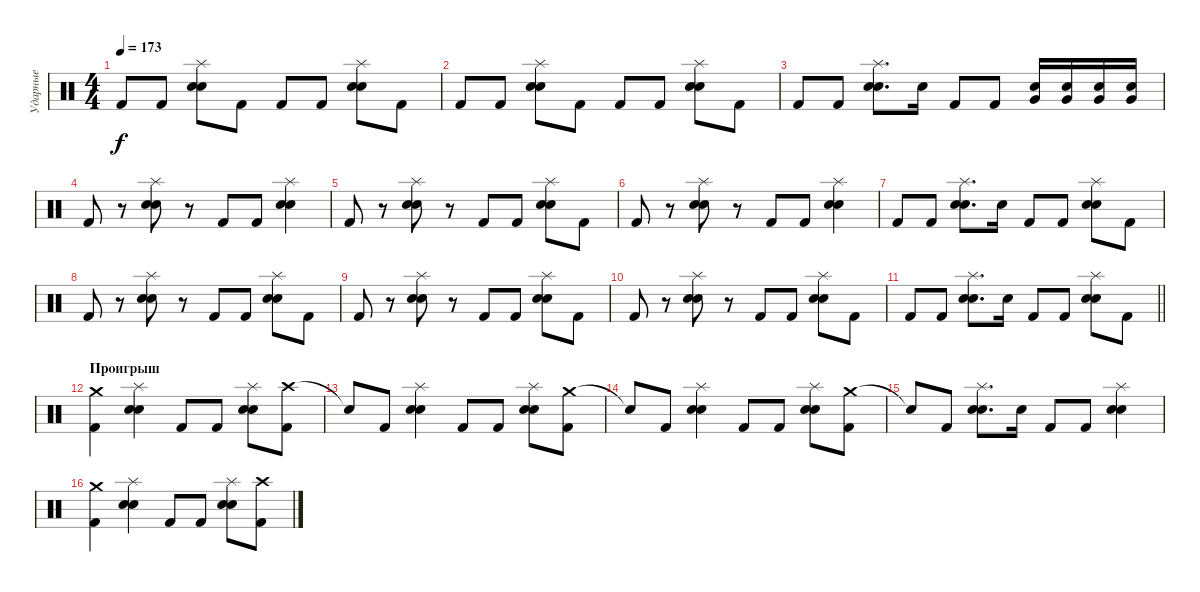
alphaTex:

\track ("Ударные" "Ударные") {instrument percussion}
\staff {score}
\articulation defaults
\ts (4 4)
\tempo 173
\clef neutral
\ks c "Kick (hit) 2".8{dy f} "Kick (hit) 2".8
("Splash (hit)" "Electric Snare (hit)" "Snare (hit) 2").8 "Kick (hit) 2".8 "Kick (hit) 2".8 "Kick (hit) 2".8 ("Splash (hit)" "Electric Snare (hit)" "Snare (hit) 2").8 "Kick (hit) 2".8 |
"Kick (hit) 2".8 "Kick (hit) 2".8 ("Splash (hit)" "Electric Snare (hit)" "Snare (hit) 2").8 "Kick (hit) 2".8 "Kick (hit) 2".8 "Kick (hit) 2".8 ("Splash (hit)" "Electric Snare (hit)" "Snare (hit) 2").8 "Kick (hit) 2".8 |
"Kick (hit) 2".8 "Kick (hit) 2".8 ("Splash (hit)" "Electric Snare (hit)" "Snare (hit) 2").8{d} "Electric Snare (hit)".16 "Kick (hit) 2".8 "Kick (hit) 2".8 ("Very Low Tom (hit)" "Snare (hit) 2").16 ("Very Low Tom (hit)" "Snare (hit) 2").16 ("Very Low Tom (hit)" "Snare (hit) 2").16 ("Very Low Tom (hit)" "Snare (hit) 2").16 |
"Kick (hit) 2".8 r.8 ("Splash (hit)" "Electric Snare (hit)" "Snare (hit) 2").8 r.8 "Kick (hit) 2".8 "Kick (hit) 2".8 ("Splash (hit)" "Electric Snare (hit)" "Snare (hit) 2").4 |
"Kick (hit) 2".8 r.8 ("Splash (hit)" "Electric Snare (hit)" "Snare (hit) 2").8 r.8 "Kick (hit) 2".8 "Kick (hit) 2".8 ("Splash (hit)" "Electric Snare (hit)" "Snare (hit) 2").8 "Kick (hit) 2".8 |
"Kick (hit) 2".8 r.8 ("Splash (hit)" "Electric Snare (hit)" "Snare (hit) 2").8 r.8 "Kick (hit) 2".8 "Kick (hit) 2".8 ("Splash (hit)" "Electric Snare (hit)" "Snare (hit) 2").4 |
"Kick (hit) 2".8 "Kick (hit) 2".8 ("Splash (hit)" "Electric Snare (hit)" "Snare (hit) 2").8{d} "Electric Snare (hit)".16 "Kick (hit) 2".8 "Kick (hit) 2".8 ("Splash (hit)" "Electric Snare (hit)" "Snare (hit) 2").8 "Kick (hit) 2".8 |
"Kick (hit) 2".8 r.8 ("Splash (hit)" "Electric Snare (hit)" "Snare (hit) 2").8 r.8 "Kick (hit) 2".8 "Kick (hit) 2".8 ("Splash (hit)" "Electric Snare (hit)" "Snare (hit) 2").8 "Kick (hit) 2".8 |
"Kick (hit) 2".8 r.8 ("Splash (hit)" "Electric Snare (hit)" "Snare (hit) 2").8 r.8 "Kick (hit) 2".8 "Kick (hit) 2".8 ("Splash (hit)" "Electric Snare (hit)" "Snare (hit) 2").8 "Kick (hit) 2".8 |
"Kick (hit) 2".8 r.8 ("Splash (hit)" "Electric Snare (hit)" "Snare (hit) 2").8 r.8 "Kick (hit) 2".8 "Kick (hit) 2".8 ("Splash (hit)" "Electric Snare (hit)" "Snare (hit) 2").8 "Kick (hit) 2".8 |
\barLineRight lightlight "Kick (hit) 2".8 "Kick (hit) 2".8
("Splash (hit)" "Electric Snare (hit)" "Snare (hit) 2").8{d} "Electric Snare (hit)".16 "Kick (hit) 2".8 "Kick (hit) 2".8 ("Splash (hit)" "Electric Snare (hit)" "Snare (hit) 2").8 "Kick (hit) 2".8 |
\section ("" "Проигрыш")
("Crash medium (hit)" "Kick (hit) 2").4 ("Splash (hit)" "Electric Snare (hit)" "Snare (hit) 2").4 "Kick (hit) 2".8 "Kick (hit) 2".8 ("Splash (hit)" "Electric Snare (hit)" "Snare (hit) 2").8 ("Crash high (hit)" "Kick (hit) 2").8 |
"Snare (hit)"{t}.8 "Kick (hit) 2".8 ("Splash (hit)" "Electric Snare (hit)" "Snare (hit) 2").4 "Kick (hit) 2".8 "Kick (hit) 2".8 ("Splash (hit)" "Electric Snare (hit)" "Snare (hit) 2").8 ("Crash medium (hit)" "Kick (hit) 2").8 |
"Snare (hit)"{t}.8 "Kick (hit) 2".8 ("Splash (hit)" "Electric Snare (hit)" "Snare (hit) 2").4 "Kick (hit) 2".8 "Kick (hit) 2".8 ("Splash (hit)" "Electric Snare (hit)" "Snare (hit) 2").8 ("Crash medium (hit)" "Kick (hit) 2").8 |
"Snare (hit)"{t}.8 "Kick (hit) 2".8 ("Splash (hit)" "Electric Snare (hit)" "Snare (hit) 2").8{d} "Electric Snare (hit)".16 "Kick (hit) 2".8 "Kick (hit) 2".8 ("Splash (hit)" "Electric Snare (hit)" "Snare (hit) 2").4 |
("Crash medium (hit)" "Kick (hit) 2").4 ("Splash (hit)" "Electric Snare (hit)" "Snare (hit) 2").4 "Kick (hit) 2".8 "Kick (hit) 2".8 ("Splash (hit)" "Electric Snare (hit)" "Snare (hit) 2").8 ("Crash high (hit)" "Kick (hit) 2").8
